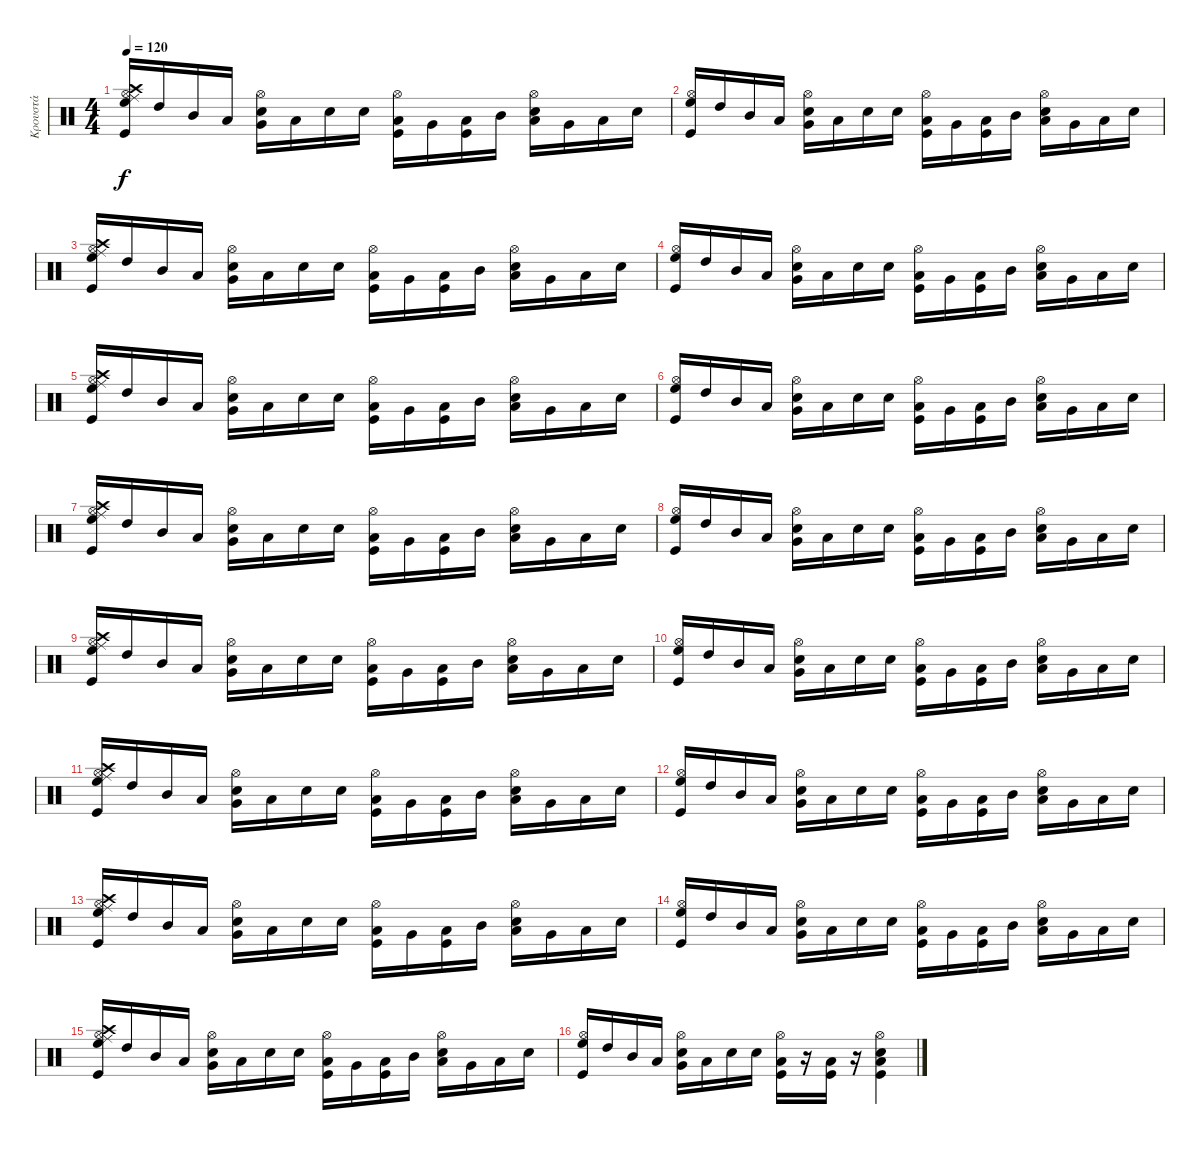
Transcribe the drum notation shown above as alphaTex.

\track ("Κρουστά" "Κρουστά") {instrument percussion}
\staff {score}
\articulation defaults
\ts (4 4)
\tempo 120
\clef neutral
\ks c
("High Floor Tom (hit)" "Ride (middle)" "Crash high (hit)" "Hi-Hat (open)" "Kick (hit)").16{dy f} "High Tom (hit)".16 "Mid Tom (hit)".16 "Low Tom (hit)".16 ("Very Low Tom (hit)" "Snare (hit) 2" "Hi-Hat (open)").16 "Low Floor Tom (hit)".16 "Snare (hit) 2".16 "Snare (hit) 2".16 ("Low Floor Tom (hit)" "Hi-Hat (open)" "Kick (hit)").16 "Very Low Tom (hit)".16 ("Low Tom (hit)" "Kick (hit)").16 "Mid Tom (hit)".16 ("Low Tom (hit)" "Snare (hit) 2" "Hi-Hat (open)").16 "Very Low Tom (hit)".16 "Low Floor Tom (hit)".16 "Snare (hit) 2".16 |
("High Floor Tom (hit)" "Hi-Hat (open)" "Kick (hit)").16 "High Tom (hit)".16 "Mid Tom (hit)".16 "Low Tom (hit)".16 ("Very Low Tom (hit)" "Snare (hit) 2" "Hi-Hat (open)").16 "Low Floor Tom (hit)".16 "Snare (hit) 2".16 "Snare (hit) 2".16 ("Low Floor Tom (hit)" "Hi-Hat (open)" "Kick (hit)").16 "Very Low Tom (hit)".16 ("Low Tom (hit)" "Kick (hit)").16 "Mid Tom (hit)".16 ("Low Tom (hit)" "Snare (hit) 2" "Hi-Hat (open)").16 "Very Low Tom (hit)".16 "Low Floor Tom (hit)".16 "Snare (hit) 2".16 |
("High Floor Tom (hit)" "Ride (middle)" "Crash high (hit)" "Hi-Hat (open)" "Kick (hit)").16 "High Tom (hit)".16 "Mid Tom (hit)".16 "Low Tom (hit)".16 ("Very Low Tom (hit)" "Snare (hit) 2" "Hi-Hat (open)").16 "Low Floor Tom (hit)".16 "Snare (hit) 2".16 "Snare (hit) 2".16 ("Low Floor Tom (hit)" "Hi-Hat (open)" "Kick (hit)").16 "Very Low Tom (hit)".16 ("Low Tom (hit)" "Kick (hit)").16 "Mid Tom (hit)".16 ("Low Tom (hit)" "Snare (hit) 2" "Hi-Hat (open)").16 "Very Low Tom (hit)".16 "Low Floor Tom (hit)".16 "Snare (hit) 2".16 |
("High Floor Tom (hit)" "Hi-Hat (open)" "Kick (hit)").16 "High Tom (hit)".16 "Mid Tom (hit)".16 "Low Tom (hit)".16 ("Very Low Tom (hit)" "Snare (hit) 2" "Hi-Hat (open)").16 "Low Floor Tom (hit)".16 "Snare (hit) 2".16 "Snare (hit) 2".16 ("Low Floor Tom (hit)" "Hi-Hat (open)" "Kick (hit)").16 "Very Low Tom (hit)".16 ("Low Tom (hit)" "Kick (hit)").16 "Mid Tom (hit)".16 ("Low Tom (hit)" "Snare (hit) 2" "Hi-Hat (open)").16 "Very Low Tom (hit)".16 "Low Floor Tom (hit)".16 "Snare (hit) 2".16 |
("High Floor Tom (hit)" "Ride (middle)" "Crash high (hit)" "Hi-Hat (open)" "Kick (hit)").16 "High Tom (hit)".16 "Mid Tom (hit)".16 "Low Tom (hit)".16 ("Very Low Tom (hit)" "Snare (hit) 2" "Hi-Hat (open)").16 "Low Floor Tom (hit)".16 "Snare (hit) 2".16 "Snare (hit) 2".16 ("Low Floor Tom (hit)" "Hi-Hat (open)" "Kick (hit)").16 "Very Low Tom (hit)".16 ("Low Tom (hit)" "Kick (hit)").16 "Mid Tom (hit)".16 ("Low Tom (hit)" "Snare (hit) 2" "Hi-Hat (open)").16 "Very Low Tom (hit)".16 "Low Floor Tom (hit)".16 "Snare (hit) 2".16 |
("High Floor Tom (hit)" "Hi-Hat (open)" "Kick (hit)").16 "High Tom (hit)".16 "Mid Tom (hit)".16 "Low Tom (hit)".16 ("Very Low Tom (hit)" "Snare (hit) 2" "Hi-Hat (open)").16 "Low Floor Tom (hit)".16 "Snare (hit) 2".16 "Snare (hit) 2".16 ("Low Floor Tom (hit)" "Hi-Hat (open)" "Kick (hit)").16 "Very Low Tom (hit)".16 ("Low Tom (hit)" "Kick (hit)").16 "Mid Tom (hit)".16 ("Low Tom (hit)" "Snare (hit) 2" "Hi-Hat (open)").16 "Very Low Tom (hit)".16 "Low Floor Tom (hit)".16 "Snare (hit) 2".16 |
("High Floor Tom (hit)" "Ride (middle)" "Crash high (hit)" "Hi-Hat (open)" "Kick (hit)").16 "High Tom (hit)".16 "Mid Tom (hit)".16 "Low Tom (hit)".16 ("Very Low Tom (hit)" "Snare (hit) 2" "Hi-Hat (open)").16 "Low Floor Tom (hit)".16 "Snare (hit) 2".16 "Snare (hit) 2".16 ("Low Floor Tom (hit)" "Hi-Hat (open)" "Kick (hit)").16 "Very Low Tom (hit)".16 ("Low Tom (hit)" "Kick (hit)").16 "Mid Tom (hit)".16 ("Low Tom (hit)" "Snare (hit) 2" "Hi-Hat (open)").16 "Very Low Tom (hit)".16 "Low Floor Tom (hit)".16 "Snare (hit) 2".16 |
("High Floor Tom (hit)" "Hi-Hat (open)" "Kick (hit)").16 "High Tom (hit)".16 "Mid Tom (hit)".16 "Low Tom (hit)".16 ("Very Low Tom (hit)" "Snare (hit) 2" "Hi-Hat (open)").16 "Low Floor Tom (hit)".16 "Snare (hit) 2".16 "Snare (hit) 2".16 ("Low Floor Tom (hit)" "Hi-Hat (open)" "Kick (hit)").16 "Very Low Tom (hit)".16 ("Low Tom (hit)" "Kick (hit)").16 "Mid Tom (hit)".16 ("Low Tom (hit)" "Snare (hit) 2" "Hi-Hat (open)").16 "Very Low Tom (hit)".16 "Low Floor Tom (hit)".16 "Snare (hit) 2".16 |
("High Floor Tom (hit)" "Ride (middle)" "Crash high (hit)" "Hi-Hat (open)" "Kick (hit)").16 "High Tom (hit)".16 "Mid Tom (hit)".16 "Low Tom (hit)".16 ("Very Low Tom (hit)" "Snare (hit) 2" "Hi-Hat (open)").16 "Low Floor Tom (hit)".16 "Snare (hit) 2".16 "Snare (hit) 2".16 ("Low Floor Tom (hit)" "Hi-Hat (open)" "Kick (hit)").16 "Very Low Tom (hit)".16 ("Low Tom (hit)" "Kick (hit)").16 "Mid Tom (hit)".16 ("Low Tom (hit)" "Snare (hit) 2" "Hi-Hat (open)").16 "Very Low Tom (hit)".16 "Low Floor Tom (hit)".16 "Snare (hit) 2".16 |
("High Floor Tom (hit)" "Hi-Hat (open)" "Kick (hit)").16 "High Tom (hit)".16 "Mid Tom (hit)".16 "Low Tom (hit)".16 ("Very Low Tom (hit)" "Snare (hit) 2" "Hi-Hat (open)").16 "Low Floor Tom (hit)".16 "Snare (hit) 2".16 "Snare (hit) 2".16 ("Low Floor Tom (hit)" "Hi-Hat (open)" "Kick (hit)").16 "Very Low Tom (hit)".16 ("Low Tom (hit)" "Kick (hit)").16 "Mid Tom (hit)".16 ("Low Tom (hit)" "Snare (hit) 2" "Hi-Hat (open)").16 "Very Low Tom (hit)".16 "Low Floor Tom (hit)".16 "Snare (hit) 2".16 |
("High Floor Tom (hit)" "Ride (middle)" "Crash high (hit)" "Hi-Hat (open)" "Kick (hit)").16 "High Tom (hit)".16 "Mid Tom (hit)".16 "Low Tom (hit)".16 ("Very Low Tom (hit)" "Snare (hit) 2" "Hi-Hat (open)").16 "Low Floor Tom (hit)".16 "Snare (hit) 2".16 "Snare (hit) 2".16 ("Low Floor Tom (hit)" "Hi-Hat (open)" "Kick (hit)").16 "Very Low Tom (hit)".16 ("Low Tom (hit)" "Kick (hit)").16 "Mid Tom (hit)".16 ("Low Tom (hit)" "Snare (hit) 2" "Hi-Hat (open)").16 "Very Low Tom (hit)".16 "Low Floor Tom (hit)".16 "Snare (hit) 2".16 |
("High Floor Tom (hit)" "Hi-Hat (open)" "Kick (hit)").16 "High Tom (hit)".16 "Mid Tom (hit)".16 "Low Tom (hit)".16 ("Very Low Tom (hit)" "Snare (hit) 2" "Hi-Hat (open)").16 "Low Floor Tom (hit)".16 "Snare (hit) 2".16 "Snare (hit) 2".16 ("Low Floor Tom (hit)" "Hi-Hat (open)" "Kick (hit)").16 "Very Low Tom (hit)".16 ("Low Tom (hit)" "Kick (hit)").16 "Mid Tom (hit)".16 ("Low Tom (hit)" "Snare (hit) 2" "Hi-Hat (open)").16 "Very Low Tom (hit)".16 "Low Floor Tom (hit)".16 "Snare (hit) 2".16 |
("High Floor Tom (hit)" "Ride (middle)" "Crash high (hit)" "Hi-Hat (open)" "Kick (hit)").16 "High Tom (hit)".16 "Mid Tom (hit)".16 "Low Tom (hit)".16 ("Very Low Tom (hit)" "Snare (hit) 2" "Hi-Hat (open)").16 "Low Floor Tom (hit)".16 "Snare (hit) 2".16 "Snare (hit) 2".16 ("Low Floor Tom (hit)" "Hi-Hat (open)" "Kick (hit)").16 "Very Low Tom (hit)".16 ("Low Tom (hit)" "Kick (hit)").16 "Mid Tom (hit)".16 ("Low Tom (hit)" "Snare (hit) 2" "Hi-Hat (open)").16 "Very Low Tom (hit)".16 "Low Floor Tom (hit)".16 "Snare (hit) 2".16 |
("High Floor Tom (hit)" "Hi-Hat (open)" "Kick (hit)").16 "High Tom (hit)".16 "Mid Tom (hit)".16 "Low Tom (hit)".16 ("Very Low Tom (hit)" "Snare (hit) 2" "Hi-Hat (open)").16 "Low Floor Tom (hit)".16 "Snare (hit) 2".16 "Snare (hit) 2".16 ("Low Floor Tom (hit)" "Hi-Hat (open)" "Kick (hit)").16 "Very Low Tom (hit)".16 ("Low Tom (hit)" "Kick (hit)").16 "Mid Tom (hit)".16 ("Low Tom (hit)" "Snare (hit) 2" "Hi-Hat (open)").16 "Very Low Tom (hit)".16 "Low Floor Tom (hit)".16 "Snare (hit) 2".16 |
("High Floor Tom (hit)" "Ride (middle)" "Crash high (hit)" "Hi-Hat (open)" "Kick (hit)").16 "High Tom (hit)".16 "Mid Tom (hit)".16 "Low Tom (hit)".16 ("Very Low Tom (hit)" "Snare (hit) 2" "Hi-Hat (open)").16 "Low Floor Tom (hit)".16 "Snare (hit) 2".16 "Snare (hit) 2".16 ("Low Floor Tom (hit)" "Hi-Hat (open)" "Kick (hit)").16 "Very Low Tom (hit)".16 ("Low Tom (hit)" "Kick (hit)").16 "Mid Tom (hit)".16 ("Low Tom (hit)" "Snare (hit) 2" "Hi-Hat (open)").16 "Very Low Tom (hit)".16 "Low Floor Tom (hit)".16 "Snare (hit) 2".16 |
("High Floor Tom (hit)" "Hi-Hat (open)" "Kick (hit)").16 "High Tom (hit)".16 "Mid Tom (hit)".16 "Low Tom (hit)".16 ("Very Low Tom (hit)" "Snare (hit) 2" "Hi-Hat (open)").16 "Low Floor Tom (hit)".16 "Snare (hit) 2".16 "Snare (hit) 2".16 ("Low Floor Tom (hit)" "Hi-Hat (open)" "Kick (hit)").16 r.16 ("Low Tom (hit)" "Kick (hit)").16 r.16 ("Low Tom (hit)" "Snare (hit) 2" "Hi-Hat (open)" "Kick (hit)").4
